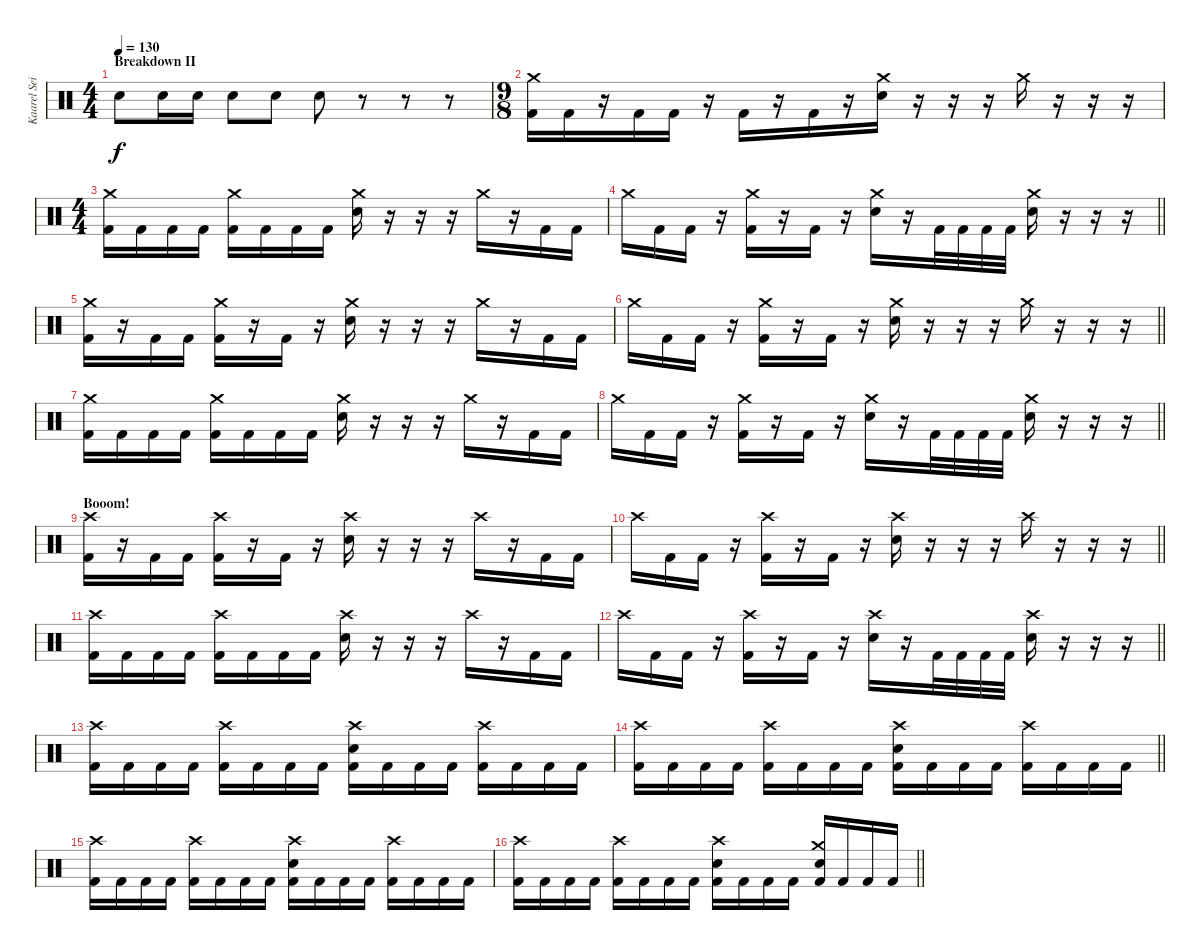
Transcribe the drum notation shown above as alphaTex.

\track ("Kaarel Sein" "Kaarel Sei") {instrument percussion}
\staff {score}
\articulation defaults
\ts (4 4)
\section ("" "Breakdown II")
\tempo 130
\clef neutral
\ks c "Electric Snare (hit)".8{dy f} "Electric Snare (hit)".16 "Electric Snare (hit)".16 "Electric Snare (hit)".8 "Electric Snare (hit)".8 "Electric Snare (hit)".8
r.8 r.8 r.8 |
\ts (9 8)
("Crash medium (hit)" "Kick (hit) 2").16 "Kick (hit) 2".16 r.16 "Kick (hit) 2".16 "Kick (hit) 2".16 r.16 "Kick (hit) 2".16 r.16 "Kick (hit) 2".16 r.16 ("Crash medium (hit)" "Electric Snare (hit)").16 r.16 r.16 r.16 "Crash medium (hit)".16 r.16 r.16 r.16 |
\ts (4 4)
("Crash medium (hit)" "Kick (hit) 2").16 "Kick (hit) 2".16 "Kick (hit) 2".16 "Kick (hit) 2".16 ("Crash medium (hit)" "Kick (hit) 2").16 "Kick (hit) 2".16 "Kick (hit) 2".16 "Kick (hit) 2".16 ("Crash medium (hit)" "Electric Snare (hit)").16 r.16 r.16 r.16 "Crash medium (hit)".16 r.16 "Kick (hit) 2".16 "Kick (hit) 2".16 |
\barLineRight lightlight "Crash medium (hit)".16 "Kick (hit) 2".16 "Kick (hit) 2".16
r.16 ("Crash medium (hit)" "Kick (hit) 2").16 r.16 "Kick (hit) 2".16 r.16 ("Crash medium (hit)" "Electric Snare (hit)").16 r.16 "Kick (hit) 2".32 "Kick (hit) 2".32 "Kick (hit) 2".32 "Kick (hit) 2".32 ("Crash medium (hit)" "Electric Snare (hit)").16 r.16 r.16 r.16 |
("Crash medium (hit)" "Kick (hit) 2").16 r.16 "Kick (hit) 2".16 "Kick (hit) 2".16 ("Crash medium (hit)" "Kick (hit) 2").16 r.16 "Kick (hit) 2".16 r.16 ("Crash medium (hit)" "Electric Snare (hit)").16 r.16 r.16 r.16 "Crash medium (hit)".16 r.16 "Kick (hit) 2".16 "Kick (hit) 2".16 |
\barLineRight lightlight "Crash medium (hit)".16 "Kick (hit) 2".16 "Kick (hit) 2".16
r.16 ("Crash medium (hit)" "Kick (hit) 2").16 r.16 "Kick (hit) 2".16 r.16 ("Crash medium (hit)" "Electric Snare (hit)").16 r.16 r.16 r.16 "Crash medium (hit)".16 r.16 r.16 r.16 |
("Crash medium (hit)" "Kick (hit) 2").16 "Kick (hit) 2".16 "Kick (hit) 2".16 "Kick (hit) 2".16 ("Crash medium (hit)" "Kick (hit) 2").16 "Kick (hit) 2".16 "Kick (hit) 2".16 "Kick (hit) 2".16 ("Crash medium (hit)" "Electric Snare (hit)").16 r.16 r.16 r.16 "Crash medium (hit)".16 r.16 "Kick (hit) 2".16 "Kick (hit) 2".16 |
\barLineRight lightlight "Crash medium (hit)".16 "Kick (hit) 2".16 "Kick (hit) 2".16
r.16 ("Crash medium (hit)" "Kick (hit) 2").16 r.16 "Kick (hit) 2".16 r.16 ("Crash medium (hit)" "Electric Snare (hit)").16 r.16 "Kick (hit) 2".32 "Kick (hit) 2".32 "Kick (hit) 2".32 "Kick (hit) 2".32 ("Crash medium (hit)" "Electric Snare (hit)").16 r.16 r.16 r.16 |
\section ("" "Booom!")
("Crash high (hit)" "Kick (hit) 2").16 r.16 "Kick (hit) 2".16 "Kick (hit) 2".16 ("Crash high (hit)" "Kick (hit) 2").16 r.16 "Kick (hit) 2".16 r.16 ("Crash high (hit)" "Electric Snare (hit)").16 r.16 r.16 r.16 "Crash high (hit)".16 r.16 "Kick (hit) 2".16 "Kick (hit) 2".16 |
\barLineRight lightlight "Crash high (hit)".16 "Kick (hit) 2".16 "Kick (hit) 2".16
r.16 ("Crash high (hit)" "Kick (hit) 2").16 r.16 "Kick (hit) 2".16 r.16 ("Crash high (hit)" "Electric Snare (hit)").16 r.16 r.16 r.16 "Crash high (hit)".16 r.16 r.16 r.16 |
("Crash high (hit)" "Kick (hit) 2").16 "Kick (hit) 2".16 "Kick (hit) 2".16 "Kick (hit) 2".16 ("Crash high (hit)" "Kick (hit) 2").16 "Kick (hit) 2".16 "Kick (hit) 2".16 "Kick (hit) 2".16 ("Crash high (hit)" "Electric Snare (hit)").16 r.16 r.16 r.16 "Crash high (hit)".16 r.16 "Kick (hit) 2".16 "Kick (hit) 2".16 |
\barLineRight lightlight "Crash high (hit)".16 "Kick (hit) 2".16 "Kick (hit) 2".16
r.16 ("Crash high (hit)" "Kick (hit) 2").16 r.16 "Kick (hit) 2".16 r.16 ("Crash high (hit)" "Electric Snare (hit)").16 r.16 "Kick (hit) 2".32 "Kick (hit) 2".32 "Kick (hit) 2".32 "Kick (hit) 2".32 ("Crash high (hit)" "Electric Snare (hit)").16 r.16 r.16 r.16 |
("Crash high (hit)" "Kick (hit) 2").16 "Kick (hit) 2".16 "Kick (hit) 2".16 "Kick (hit) 2".16 ("Crash high (hit)" "Kick (hit) 2").16 "Kick (hit) 2".16 "Kick (hit) 2".16 "Kick (hit) 2".16 ("Crash high (hit)" "Electric Snare (hit)" "Kick (hit) 2").16 "Kick (hit) 2".16 "Kick (hit) 2".16 "Kick (hit) 2".16 ("Crash high (hit)" "Kick (hit) 2").16 "Kick (hit) 2".16 "Kick (hit) 2".16 "Kick (hit) 2".16 |
\barLineRight lightlight
("Crash high (hit)" "Kick (hit) 2").16 "Kick (hit) 2".16 "Kick (hit) 2".16 "Kick (hit) 2".16 ("Crash high (hit)" "Kick (hit) 2").16 "Kick (hit) 2".16 "Kick (hit) 2".16 "Kick (hit) 2".16 ("Crash high (hit)" "Electric Snare (hit)" "Kick (hit) 2").16 "Kick (hit) 2".16 "Kick (hit) 2".16 "Kick (hit) 2".16 ("Crash high (hit)" "Kick (hit) 2").16 "Kick (hit) 2".16 "Kick (hit) 2".16 "Kick (hit) 2".16 |
("Crash high (hit)" "Kick (hit) 2").16 "Kick (hit) 2".16 "Kick (hit) 2".16 "Kick (hit) 2".16 ("Crash high (hit)" "Kick (hit) 2").16 "Kick (hit) 2".16 "Kick (hit) 2".16 "Kick (hit) 2".16 ("Crash high (hit)" "Electric Snare (hit)" "Kick (hit) 2").16 "Kick (hit) 2".16 "Kick (hit) 2".16 "Kick (hit) 2".16 ("Crash high (hit)" "Kick (hit) 2").16 "Kick (hit) 2".16 "Kick (hit) 2".16 "Kick (hit) 2".16 |
\barLineRight lightlight
("Crash high (hit)" "Kick (hit) 2").16 "Kick (hit) 2".16 "Kick (hit) 2".16 "Kick (hit) 2".16 ("Crash high (hit)" "Kick (hit) 2").16 "Kick (hit) 2".16 "Kick (hit) 2".16 "Kick (hit) 2".16 ("Crash high (hit)" "Electric Snare (hit)" "Kick (hit) 2").16 "Kick (hit) 2".16 "Kick (hit) 2".16 "Kick (hit) 2".16 ("Crash medium (hit)" "Electric Snare (hit)" "Kick (hit) 2").16 "Kick (hit) 2".16 "Kick (hit) 2".16 "Kick (hit) 2".16
